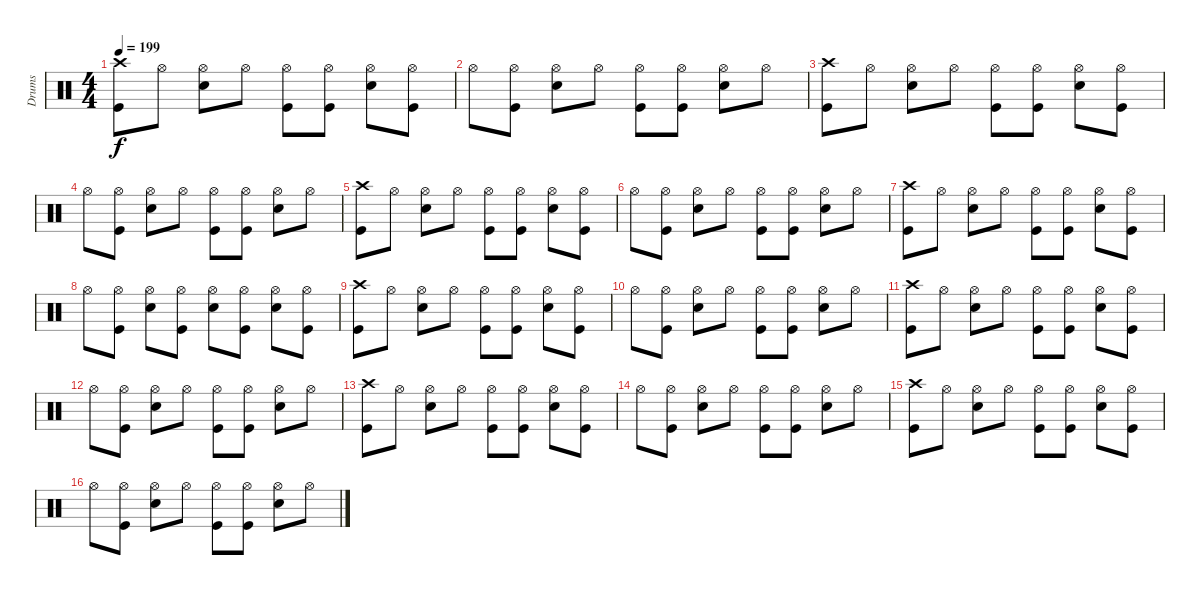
\track ("Drums" "Drums") {instrument percussion}
\staff {score}
\articulation defaults
\ts (4 4)
\tempo 199
\clef neutral
\ks c
("Kick (hit)" "Crash high (hit)").8{dy f} "Hi-Hat (open)".8 ("Hi-Hat (open)" "Snare (hit) 2").8 "Hi-Hat (open)".8 ("Hi-Hat (open)" "Kick (hit)").8 ("Hi-Hat (open)" "Kick (hit)").8 ("Hi-Hat (open)" "Snare (hit) 2").8 ("Hi-Hat (open)" "Kick (hit)").8 |
"Hi-Hat (open)".8 ("Kick (hit)" "Hi-Hat (open)").8 ("Hi-Hat (open)" "Snare (hit) 2").8 "Hi-Hat (open)".8 ("Hi-Hat (open)" "Kick (hit)").8 ("Kick (hit)" "Hi-Hat (open)").8 ("Hi-Hat (open)" "Snare (hit) 2").8 "Hi-Hat (open)".8 |
("Kick (hit)" "Crash high (hit)").8 "Hi-Hat (open)".8 ("Hi-Hat (open)" "Snare (hit) 2").8 "Hi-Hat (open)".8 ("Hi-Hat (open)" "Kick (hit)").8 ("Hi-Hat (open)" "Kick (hit)").8 ("Hi-Hat (open)" "Snare (hit) 2").8 ("Hi-Hat (open)" "Kick (hit)").8 |
"Hi-Hat (open)".8 ("Kick (hit)" "Hi-Hat (open)").8 ("Hi-Hat (open)" "Snare (hit) 2").8 "Hi-Hat (open)".8 ("Hi-Hat (open)" "Kick (hit)").8 ("Kick (hit)" "Hi-Hat (open)").8 ("Hi-Hat (open)" "Snare (hit) 2").8 "Hi-Hat (open)".8 |
("Kick (hit)" "Crash high (hit)").8 "Hi-Hat (open)".8 ("Hi-Hat (open)" "Snare (hit) 2").8 "Hi-Hat (open)".8 ("Hi-Hat (open)" "Kick (hit)").8 ("Hi-Hat (open)" "Kick (hit)").8 ("Hi-Hat (open)" "Snare (hit) 2").8 ("Hi-Hat (open)" "Kick (hit)").8 |
"Hi-Hat (open)".8 ("Kick (hit)" "Hi-Hat (open)").8 ("Hi-Hat (open)" "Snare (hit) 2").8 "Hi-Hat (open)".8 ("Hi-Hat (open)" "Kick (hit)").8 ("Kick (hit)" "Hi-Hat (open)").8 ("Hi-Hat (open)" "Snare (hit) 2").8 "Hi-Hat (open)".8 |
("Kick (hit)" "Crash high (hit)").8 "Hi-Hat (open)".8 ("Hi-Hat (open)" "Snare (hit) 2").8 "Hi-Hat (open)".8 ("Hi-Hat (open)" "Kick (hit)").8 ("Hi-Hat (open)" "Kick (hit)").8 ("Hi-Hat (open)" "Snare (hit) 2").8 ("Hi-Hat (open)" "Kick (hit)").8 |
"Hi-Hat (open)".8 ("Hi-Hat (open)" "Kick (hit)").8 ("Hi-Hat (open)" "Snare (hit) 2").8 ("Hi-Hat (open)" "Kick (hit)").8 ("Hi-Hat (open)" "Snare (hit) 2").8 ("Hi-Hat (open)" "Kick (hit)").8 ("Hi-Hat (open)" "Snare (hit) 2").8 ("Hi-Hat (open)" "Kick (hit)").8 |
("Kick (hit)" "Crash high (hit)").8 "Hi-Hat (open)".8 ("Hi-Hat (open)" "Snare (hit) 2").8 "Hi-Hat (open)".8 ("Hi-Hat (open)" "Kick (hit)").8 ("Hi-Hat (open)" "Kick (hit)").8 ("Hi-Hat (open)" "Snare (hit) 2").8 ("Hi-Hat (open)" "Kick (hit)").8 |
"Hi-Hat (open)".8 ("Kick (hit)" "Hi-Hat (open)").8 ("Hi-Hat (open)" "Snare (hit) 2").8 "Hi-Hat (open)".8 ("Hi-Hat (open)" "Kick (hit)").8 ("Kick (hit)" "Hi-Hat (open)").8 ("Hi-Hat (open)" "Snare (hit) 2").8 "Hi-Hat (open)".8 |
("Kick (hit)" "Crash high (hit)").8 "Hi-Hat (open)".8 ("Hi-Hat (open)" "Snare (hit) 2").8 "Hi-Hat (open)".8 ("Hi-Hat (open)" "Kick (hit)").8 ("Hi-Hat (open)" "Kick (hit)").8 ("Hi-Hat (open)" "Snare (hit) 2").8 ("Hi-Hat (open)" "Kick (hit)").8 |
"Hi-Hat (open)".8 ("Kick (hit)" "Hi-Hat (open)").8 ("Hi-Hat (open)" "Snare (hit) 2").8 "Hi-Hat (open)".8 ("Hi-Hat (open)" "Kick (hit)").8 ("Kick (hit)" "Hi-Hat (open)").8 ("Hi-Hat (open)" "Snare (hit) 2").8 "Hi-Hat (open)".8 |
("Kick (hit)" "Crash high (hit)").8 "Hi-Hat (open)".8 ("Hi-Hat (open)" "Snare (hit) 2").8 "Hi-Hat (open)".8 ("Hi-Hat (open)" "Kick (hit)").8 ("Hi-Hat (open)" "Kick (hit)").8 ("Hi-Hat (open)" "Snare (hit) 2").8 ("Hi-Hat (open)" "Kick (hit)").8 |
"Hi-Hat (open)".8 ("Kick (hit)" "Hi-Hat (open)").8 ("Hi-Hat (open)" "Snare (hit) 2").8 "Hi-Hat (open)".8 ("Hi-Hat (open)" "Kick (hit)").8 ("Kick (hit)" "Hi-Hat (open)").8 ("Hi-Hat (open)" "Snare (hit) 2").8 "Hi-Hat (open)".8 |
("Kick (hit)" "Crash high (hit)").8 "Hi-Hat (open)".8 ("Hi-Hat (open)" "Snare (hit) 2").8 "Hi-Hat (open)".8 ("Hi-Hat (open)" "Kick (hit)").8 ("Hi-Hat (open)" "Kick (hit)").8 ("Hi-Hat (open)" "Snare (hit) 2").8 ("Hi-Hat (open)" "Kick (hit)").8 |
"Hi-Hat (open)".8 ("Kick (hit)" "Hi-Hat (open)").8 ("Hi-Hat (open)" "Snare (hit) 2").8 "Hi-Hat (open)".8 ("Hi-Hat (open)" "Kick (hit)").8 ("Kick (hit)" "Hi-Hat (open)").8 ("Hi-Hat (open)" "Snare (hit) 2").8 "Hi-Hat (open)".8
